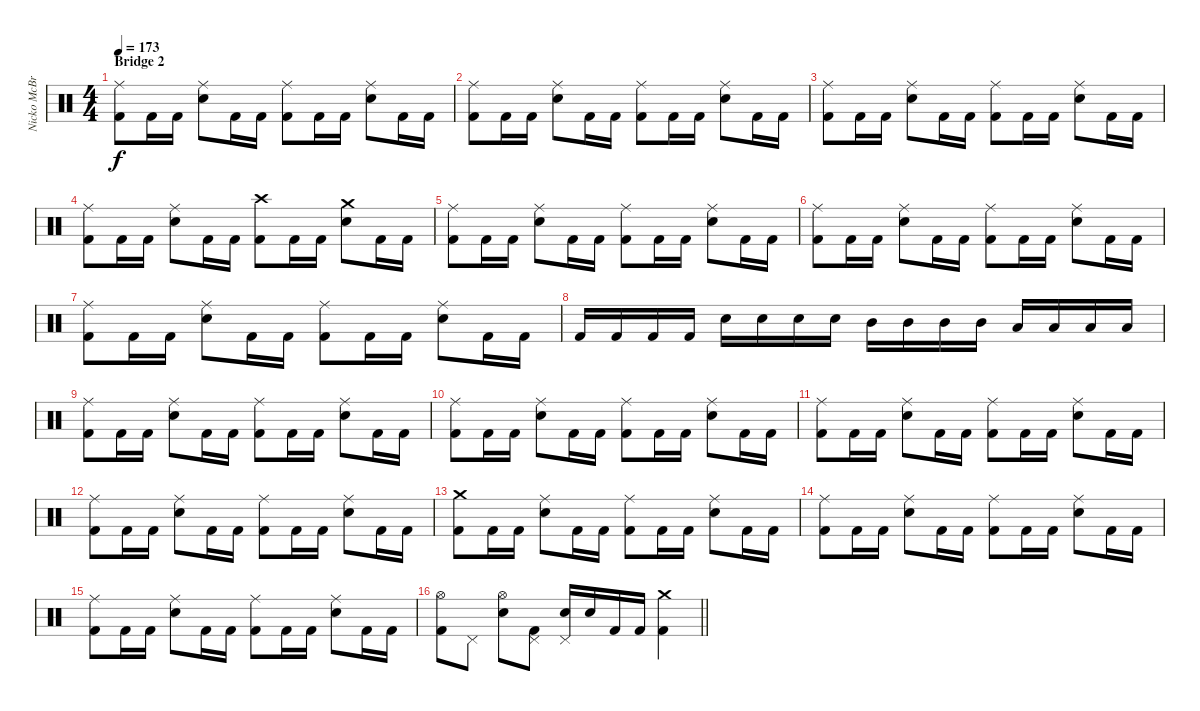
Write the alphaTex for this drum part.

\track ("Nicko McBrain" "Nicko McBr") {instrument percussion}
\staff {score}
\articulation defaults
\ts (4 4)
\section ("" "Bridge 2")
\tempo 173
\clef neutral
\ks c
("Ride (middle)" "Kick (hit) 2").8{dy f} "Kick (hit) 2".16 "Kick (hit) 2".16 ("Ride (middle)" "Electric Snare (hit)").8 "Kick (hit) 2".16 "Kick (hit) 2".16 ("Ride (middle)" "Kick (hit) 2").8 "Kick (hit) 2".16 "Kick (hit) 2".16 ("Ride (middle)" "Electric Snare (hit)").8 "Kick (hit) 2".16 "Kick (hit) 2".16 |
("Ride (middle)" "Kick (hit) 2").8 "Kick (hit) 2".16 "Kick (hit) 2".16 ("Ride (middle)" "Electric Snare (hit)").8 "Kick (hit) 2".16 "Kick (hit) 2".16 ("Ride (middle)" "Kick (hit) 2").8 "Kick (hit) 2".16 "Kick (hit) 2".16 ("Ride (middle)" "Electric Snare (hit)").8 "Kick (hit) 2".16 "Kick (hit) 2".16 |
("Ride (middle)" "Kick (hit) 2").8 "Kick (hit) 2".16 "Kick (hit) 2".16 ("Ride (middle)" "Electric Snare (hit)").8 "Kick (hit) 2".16 "Kick (hit) 2".16 ("Ride (middle)" "Kick (hit) 2").8 "Kick (hit) 2".16 "Kick (hit) 2".16 ("Ride (middle)" "Electric Snare (hit)").8 "Kick (hit) 2".16 "Kick (hit) 2".16 |
("Ride (middle)" "Kick (hit) 2").8 "Kick (hit) 2".16 "Kick (hit) 2".16 ("Ride (middle)" "Electric Snare (hit)").8 "Kick (hit) 2".16 "Kick (hit) 2".16 ("Crash high (hit)" "Kick (hit) 2").8 "Kick (hit) 2".16 "Kick (hit) 2".16 ("Crash medium (hit)" "Electric Snare (hit)").8 "Kick (hit) 2".16 "Kick (hit) 2".16 |
("Ride (middle)" "Kick (hit) 2").8 "Kick (hit) 2".16 "Kick (hit) 2".16 ("Ride (middle)" "Electric Snare (hit)").8 "Kick (hit) 2".16 "Kick (hit) 2".16 ("Ride (middle)" "Kick (hit) 2").8 "Kick (hit) 2".16 "Kick (hit) 2".16 ("Ride (middle)" "Electric Snare (hit)").8 "Kick (hit) 2".16 "Kick (hit) 2".16 |
("Ride (middle)" "Kick (hit) 2").8 "Kick (hit) 2".16 "Kick (hit) 2".16 ("Ride (middle)" "Electric Snare (hit)").8 "Kick (hit) 2".16 "Kick (hit) 2".16 ("Ride (middle)" "Kick (hit) 2").8 "Kick (hit) 2".16 "Kick (hit) 2".16 ("Ride (middle)" "Electric Snare (hit)").8 "Kick (hit) 2".16 "Kick (hit) 2".16 |
("Ride (middle)" "Kick (hit) 2").8 "Kick (hit) 2".16 "Kick (hit) 2".16 ("Ride (middle)" "Electric Snare (hit)").8 "Kick (hit) 2".16 "Kick (hit) 2".16 ("Ride (middle)" "Kick (hit) 2").8 "Kick (hit) 2".16 "Kick (hit) 2".16 ("Ride (middle)" "Electric Snare (hit)").8 "Kick (hit) 2".16 "Kick (hit) 2".16 |
"Kick (hit) 2".16 "Kick (hit) 2".16 "Kick (hit) 2".16 "Kick (hit) 2".16 "Electric Snare (hit)".16 "Electric Snare (hit)".16 "Electric Snare (hit)".16 "Electric Snare (hit)".16 "Mid Tom (hit)".16 "Mid Tom (hit)".16 "Mid Tom (hit)".16 "Mid Tom (hit)".16 "Low Tom (hit)".16 "Low Tom (hit)".16 "Low Tom (hit)".16 "Low Tom (hit)".16 |
("Ride (middle)" "Kick (hit) 2").8 "Kick (hit) 2".16 "Kick (hit) 2".16 ("Ride (middle)" "Electric Snare (hit)").8 "Kick (hit) 2".16 "Kick (hit) 2".16 ("Ride (middle)" "Kick (hit) 2").8 "Kick (hit) 2".16 "Kick (hit) 2".16 ("Ride (middle)" "Electric Snare (hit)").8 "Kick (hit) 2".16 "Kick (hit) 2".16 |
("Ride (middle)" "Kick (hit) 2").8 "Kick (hit) 2".16 "Kick (hit) 2".16 ("Ride (middle)" "Electric Snare (hit)").8 "Kick (hit) 2".16 "Kick (hit) 2".16 ("Ride (middle)" "Kick (hit) 2").8 "Kick (hit) 2".16 "Kick (hit) 2".16 ("Ride (middle)" "Electric Snare (hit)").8 "Kick (hit) 2".16 "Kick (hit) 2".16 |
("Ride (middle)" "Kick (hit) 2").8 "Kick (hit) 2".16 "Kick (hit) 2".16 ("Ride (middle)" "Electric Snare (hit)").8 "Kick (hit) 2".16 "Kick (hit) 2".16 ("Ride (middle)" "Kick (hit) 2").8 "Kick (hit) 2".16 "Kick (hit) 2".16 ("Ride (middle)" "Electric Snare (hit)").8 "Kick (hit) 2".16 "Kick (hit) 2".16 |
("Ride (middle)" "Kick (hit) 2").8 "Kick (hit) 2".16 "Kick (hit) 2".16 ("Ride (middle)" "Electric Snare (hit)").8 "Kick (hit) 2".16 "Kick (hit) 2".16 ("Ride (middle)" "Kick (hit) 2").8 "Kick (hit) 2".16 "Kick (hit) 2".16 ("Ride (middle)" "Electric Snare (hit)").8 "Kick (hit) 2".16 "Kick (hit) 2".16 |
("Crash medium (hit)" "Kick (hit) 2").8 "Kick (hit) 2".16 "Kick (hit) 2".16 ("Ride (middle)" "Electric Snare (hit)").8 "Kick (hit) 2".16 "Kick (hit) 2".16 ("Ride (middle)" "Kick (hit) 2").8 "Kick (hit) 2".16 "Kick (hit) 2".16 ("Ride (middle)" "Electric Snare (hit)").8 "Kick (hit) 2".16 "Kick (hit) 2".16 |
("Ride (middle)" "Kick (hit) 2").8 "Kick (hit) 2".16 "Kick (hit) 2".16 ("Ride (middle)" "Electric Snare (hit)").8 "Kick (hit) 2".16 "Kick (hit) 2".16 ("Ride (middle)" "Kick (hit) 2").8 "Kick (hit) 2".16 "Kick (hit) 2".16 ("Ride (middle)" "Electric Snare (hit)").8 "Kick (hit) 2".16 "Kick (hit) 2".16 |
("Ride (middle)" "Kick (hit) 2").8 "Kick (hit) 2".16 "Kick (hit) 2".16 ("Ride (middle)" "Electric Snare (hit)").8 "Kick (hit) 2".16 "Kick (hit) 2".16 ("Ride (middle)" "Kick (hit) 2").8 "Kick (hit) 2".16 "Kick (hit) 2".16 ("Ride (middle)" "Electric Snare (hit)").8 "Kick (hit) 2".16 "Kick (hit) 2".16 |
\barLineRight lightlight
("Hi-Hat (open)" "Kick (hit) 2").8 "Pedal Hi-Hat (hit)".8 ("Hi-Hat (open)" "Electric Snare (hit)").8 ("Pedal Hi-Hat (hit)" "Kick (hit) 2").8 ("Pedal Hi-Hat (hit)" "Electric Snare (hit)").16 "Electric Snare (hit)".16 "Kick (hit) 2".16 "Kick (hit) 2".16 ("Crash medium (hit)" "Kick (hit) 2").4
